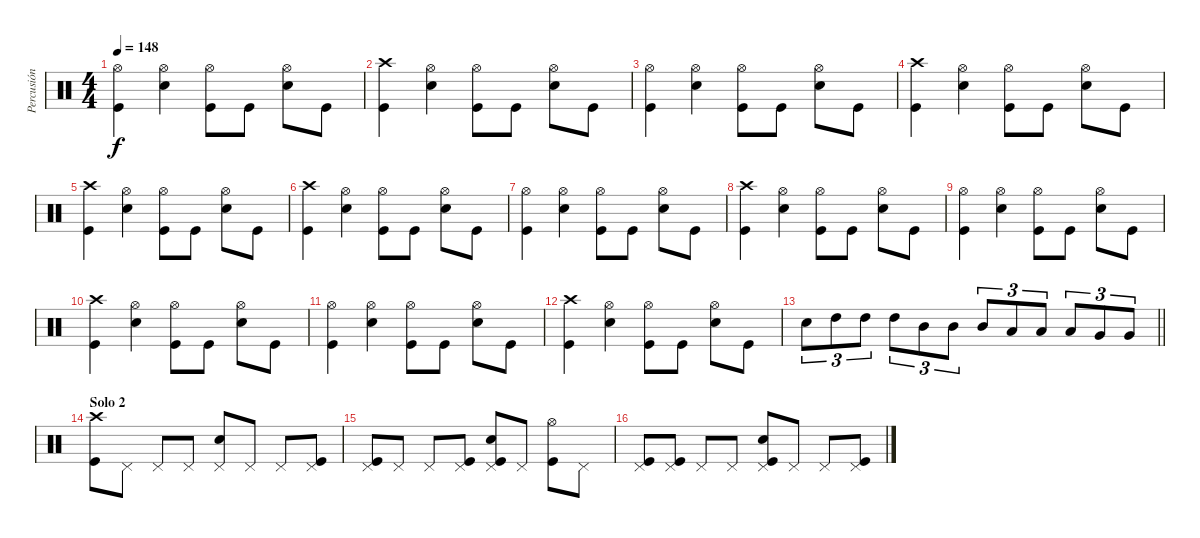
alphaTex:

\track ("Percusión" "Percusión") {instrument percussion}
\staff {score}
\articulation defaults
\ts (4 4)
\tempo 148
\clef neutral
\ks c
("Hi-Hat (open)" "Kick (hit)").4{dy f} ("Hi-Hat (open)" "Electric Snare (hit)").4 ("Hi-Hat (open)" "Kick (hit)").8 "Kick (hit)".8 ("Hi-Hat (open)" "Electric Snare (hit)").8 "Kick (hit)".8 |
("Crash high (hit)" "Kick (hit)").4 ("Hi-Hat (open)" "Electric Snare (hit)").4 ("Hi-Hat (open)" "Kick (hit)").8 "Kick (hit)".8 ("Hi-Hat (open)" "Electric Snare (hit)").8 "Kick (hit)".8 |
("Hi-Hat (open)" "Kick (hit)").4 ("Hi-Hat (open)" "Electric Snare (hit)").4 ("Hi-Hat (open)" "Kick (hit)").8 "Kick (hit)".8 ("Hi-Hat (open)" "Electric Snare (hit)").8 "Kick (hit)".8 |
("Crash high (hit)" "Kick (hit)").4 ("Hi-Hat (open)" "Electric Snare (hit)").4 ("Hi-Hat (open)" "Kick (hit)").8 "Kick (hit)".8 ("Hi-Hat (open)" "Electric Snare (hit)").8 "Kick (hit)".8 |
("Crash high (hit)" "Kick (hit)").4 ("Hi-Hat (open)" "Electric Snare (hit)").4 ("Hi-Hat (open)" "Kick (hit)").8 "Kick (hit)".8 ("Hi-Hat (open)" "Electric Snare (hit)").8 "Kick (hit)".8 |
("Crash high (hit)" "Kick (hit)").4 ("Hi-Hat (open)" "Electric Snare (hit)").4 ("Hi-Hat (open)" "Kick (hit)").8 "Kick (hit)".8 ("Hi-Hat (open)" "Electric Snare (hit)").8 "Kick (hit)".8 |
("Hi-Hat (open)" "Kick (hit)").4 ("Hi-Hat (open)" "Electric Snare (hit)").4 ("Hi-Hat (open)" "Kick (hit)").8 "Kick (hit)".8 ("Hi-Hat (open)" "Electric Snare (hit)").8 "Kick (hit)".8 |
("Crash high (hit)" "Kick (hit)").4 ("Hi-Hat (open)" "Electric Snare (hit)").4 ("Hi-Hat (open)" "Kick (hit)").8 "Kick (hit)".8 ("Hi-Hat (open)" "Electric Snare (hit)").8 "Kick (hit)".8 |
("Hi-Hat (open)" "Kick (hit)").4 ("Hi-Hat (open)" "Electric Snare (hit)").4 ("Hi-Hat (open)" "Kick (hit)").8 "Kick (hit)".8 ("Hi-Hat (open)" "Electric Snare (hit)").8 "Kick (hit)".8 |
("Crash high (hit)" "Kick (hit)").4 ("Hi-Hat (open)" "Electric Snare (hit)").4 ("Hi-Hat (open)" "Kick (hit)").8 "Kick (hit)".8 ("Hi-Hat (open)" "Electric Snare (hit)").8 "Kick (hit)".8 |
("Hi-Hat (open)" "Kick (hit)").4 ("Hi-Hat (open)" "Electric Snare (hit)").4 ("Hi-Hat (open)" "Kick (hit)").8 "Kick (hit)".8 ("Hi-Hat (open)" "Electric Snare (hit)").8 "Kick (hit)".8 |
("Crash high (hit)" "Kick (hit)").4 ("Hi-Hat (open)" "Electric Snare (hit)").4 ("Hi-Hat (open)" "Kick (hit)").8 "Kick (hit)".8 ("Hi-Hat (open)" "Electric Snare (hit)").8 "Kick (hit)".8 |
\barLineRight lightlight "Electric Snare (hit)".8{tu (3 2)} "High Tom (hit)".8{tu (3 2)} "High Tom (hit)".8{tu (3 2)} "High Tom (hit)".8{tu (3 2)} "Mid Tom (hit)".8{tu (3 2)} "Mid Tom (hit)".8{tu (3 2)} "Mid Tom (hit)".8{tu (3 2)} "Low Tom (hit)".8{tu (3 2)} "Low Tom (hit)".8{tu (3 2)} "Low Tom (hit)".8{tu (3 2)} "Very Low Tom (hit)".8{tu (3 2)} "Very Low Tom (hit)".8{tu (3 2)}
|
\section ("" "Solo 2")
("Crash high (hit)" "Kick (hit)").8{volume 13} "Pedal Hi-Hat (hit)".8 "Pedal Hi-Hat (hit)".8 "Pedal Hi-Hat (hit)".8 ("Pedal Hi-Hat (hit)" "Electric Snare (hit)").8 "Pedal Hi-Hat (hit)".8 "Pedal Hi-Hat (hit)".8 ("Pedal Hi-Hat (hit)" "Kick (hit)").8 |
("Pedal Hi-Hat (hit)" "Kick (hit)").8 "Pedal Hi-Hat (hit)".8 "Pedal Hi-Hat (hit)".8 ("Pedal Hi-Hat (hit)" "Kick (hit)").8 ("Pedal Hi-Hat (hit)" "Electric Snare (hit)" "Kick (hit)").8 "Pedal Hi-Hat (hit)".8 ("Hi-Hat (open)" "Kick (hit)").8 "Pedal Hi-Hat (hit)".8 |
("Pedal Hi-Hat (hit)" "Kick (hit)").8 ("Pedal Hi-Hat (hit)" "Kick (hit)").8 "Pedal Hi-Hat (hit)".8 "Pedal Hi-Hat (hit)".8 ("Pedal Hi-Hat (hit)" "Electric Snare (hit)" "Kick (hit)").8 "Pedal Hi-Hat (hit)".8 "Pedal Hi-Hat (hit)".8 ("Pedal Hi-Hat (hit)" "Kick (hit)").8
